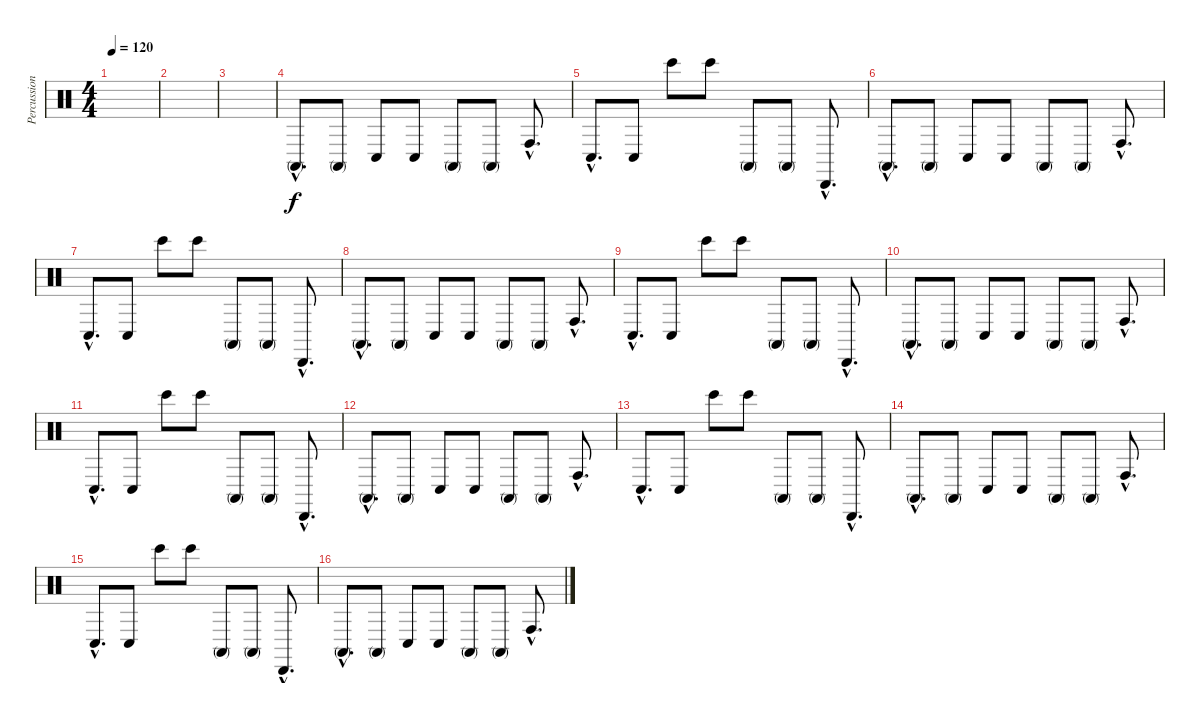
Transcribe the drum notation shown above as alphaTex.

\track ("Percussion(By Bela B.)" "Percussion") {instrument percussion}
\staff {score}
\articulation defaults
\ts (4 4)
\tempo 120
\clef neutral
\ks c
|
|
|
"Conga high (mute)"{hac}.8{d} "Conga high (mute)".8 "Conga low (hit)".8 "Conga low (hit)".8 "Conga high (mute)".8 "Conga high (mute)".8 "Conga high (hit)"{hac}.8{d} |
"Conga low (hit)"{hac}.8{d} "Conga low (hit)".8 "Bongo High (hit)".8 "Bongo High (hit)".8 "Conga high (mute)".8 "Conga high (mute)".8 "Cabasa (hit)"{hac}.8{d} |
"Conga high (mute)"{hac}.8{d} "Conga high (mute)".8 "Conga low (hit)".8 "Conga low (hit)".8 "Conga high (mute)".8 "Conga high (mute)".8 "Conga high (hit)"{hac}.8{d} |
"Conga low (hit)"{hac}.8{d} "Conga low (hit)".8 "Bongo High (hit)".8 "Bongo High (hit)".8 "Conga high (mute)".8 "Conga high (mute)".8 "Cabasa (hit)"{hac}.8{d} |
"Conga high (mute)"{hac}.8{d} "Conga high (mute)".8 "Conga low (hit)".8 "Conga low (hit)".8 "Conga high (mute)".8 "Conga high (mute)".8 "Conga high (hit)"{hac}.8{d} |
"Conga low (hit)"{hac}.8{d} "Conga low (hit)".8 "Bongo High (hit)".8 "Bongo High (hit)".8 "Conga high (mute)".8 "Conga high (mute)".8 "Cabasa (hit)"{hac}.8{d} |
"Conga high (mute)"{hac}.8{d} "Conga high (mute)".8 "Conga low (hit)".8 "Conga low (hit)".8 "Conga high (mute)".8 "Conga high (mute)".8 "Conga high (hit)"{hac}.8{d} |
"Conga low (hit)"{hac}.8{d} "Conga low (hit)".8 "Bongo High (hit)".8 "Bongo High (hit)".8 "Conga high (mute)".8 "Conga high (mute)".8 "Cabasa (hit)"{hac}.8{d} |
"Conga high (mute)"{hac}.8{d} "Conga high (mute)".8 "Conga low (hit)".8 "Conga low (hit)".8 "Conga high (mute)".8 "Conga high (mute)".8 "Conga high (hit)"{hac}.8{d} |
"Conga low (hit)"{hac}.8{d} "Conga low (hit)".8 "Bongo High (hit)".8 "Bongo High (hit)".8 "Conga high (mute)".8 "Conga high (mute)".8 "Cabasa (hit)"{hac}.8{d} |
"Conga high (mute)"{hac}.8{d} "Conga high (mute)".8 "Conga low (hit)".8 "Conga low (hit)".8 "Conga high (mute)".8 "Conga high (mute)".8 "Conga high (hit)"{hac}.8{d} |
"Conga low (hit)"{hac}.8{d} "Conga low (hit)".8 "Bongo High (hit)".8 "Bongo High (hit)".8 "Conga high (mute)".8 "Conga high (mute)".8 "Cabasa (hit)"{hac}.8{d} |
"Conga high (mute)"{hac}.8{d} "Conga high (mute)".8 "Conga low (hit)".8 "Conga low (hit)".8 "Conga high (mute)".8 "Conga high (mute)".8 "Conga high (hit)"{hac}.8{d}
